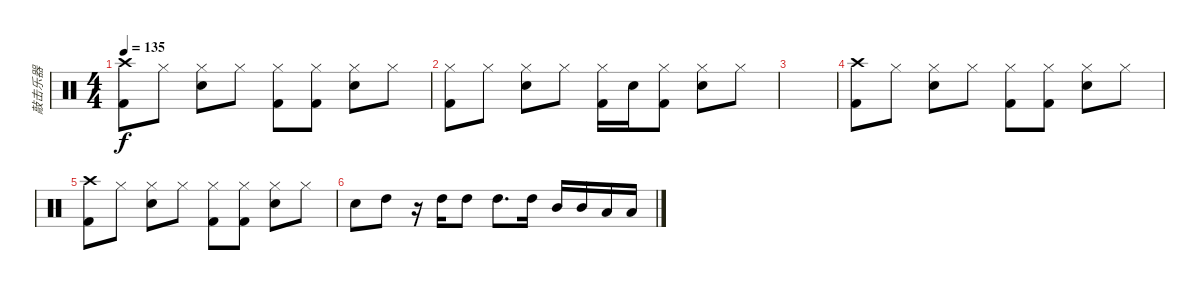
\track ("敲击乐器" "敲击乐器") {instrument percussion}
\staff {score}
\articulation defaults
\ts (4 4)
\tempo 135
\clef neutral
\ks c
("Crash high (hit)" "Kick (hit) 2").8{dy f} "Hi-Hat (closed)".8 ("Hi-Hat (closed)" "Electric Snare (hit)").8 "Hi-Hat (closed)".8 ("Hi-Hat (closed)" "Kick (hit) 2").8 ("Hi-Hat (closed)" "Kick (hit) 2").8 ("Hi-Hat (closed)" "Electric Snare (hit)").8 "Hi-Hat (closed)".8 |
("Hi-Hat (closed)" "Kick (hit) 2").8 "Hi-Hat (closed)".8 ("Hi-Hat (closed)" "Electric Snare (hit)").8 "Hi-Hat (closed)".8 ("Hi-Hat (closed)" "Kick (hit) 2").16 "Electric Snare (hit)".16 ("Hi-Hat (closed)" "Kick (hit) 2").8 ("Hi-Hat (closed)" "Electric Snare (hit)").8 "Hi-Hat (closed)".8 |
|
("Crash high (hit)" "Kick (hit) 2").8 "Hi-Hat (closed)".8 ("Hi-Hat (closed)" "Electric Snare (hit)").8 "Hi-Hat (closed)".8 ("Hi-Hat (closed)" "Kick (hit) 2").8 ("Hi-Hat (closed)" "Kick (hit) 2").8 ("Hi-Hat (closed)" "Electric Snare (hit)").8 "Hi-Hat (closed)".8 |
("Crash high (hit)" "Kick (hit) 2").8 "Hi-Hat (closed)".8 ("Hi-Hat (closed)" "Electric Snare (hit)").8 "Hi-Hat (closed)".8 ("Hi-Hat (closed)" "Kick (hit) 2").8 ("Hi-Hat (closed)" "Kick (hit) 2").8 ("Hi-Hat (closed)" "Electric Snare (hit)").8 "Hi-Hat (closed)".8 |
"Snare (hit) 2".8 "High Tom (hit)".8 r.16 "High Tom (hit)".16 "High Tom (hit)".8 "High Tom (hit)".8{d} "High Tom (hit)".16 "Mid Tom (hit)".16 "Mid Tom (hit)".16 "Low Tom (hit)".16 "Low Tom (hit)".16
